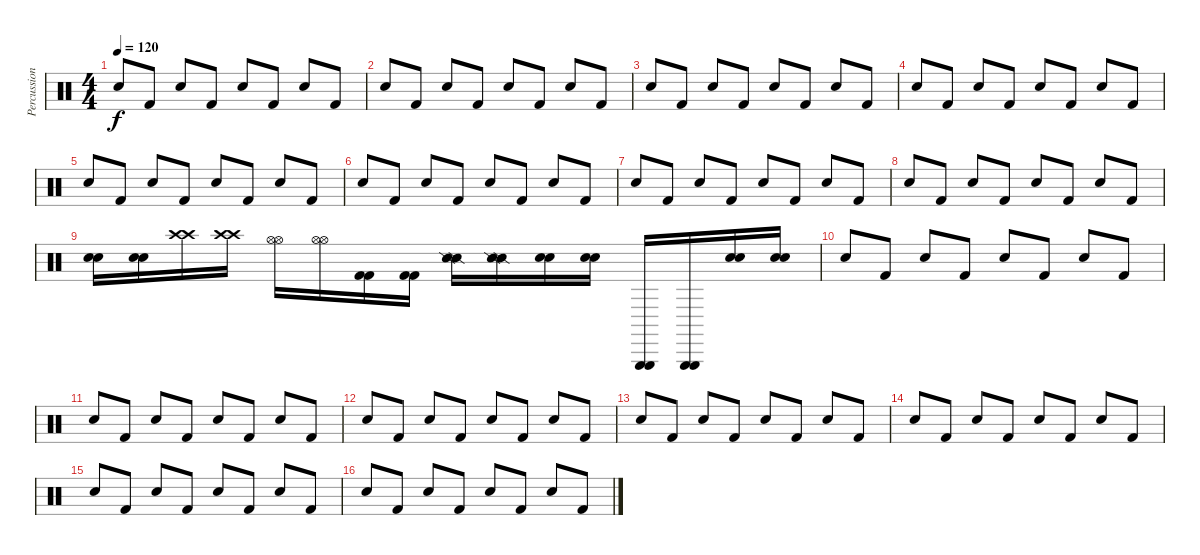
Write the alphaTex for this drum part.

\track ("Percussions" "Percussion") {instrument percussion}
\staff {score}
\articulation defaults
\ts (4 4)
\tempo 120
\clef neutral
\ks c "Electric Snare (hit)".8{dy f} "Kick (hit) 2".8 "Electric Snare (hit)".8 "Kick (hit) 2".8 "Electric Snare (hit)".8 "Kick (hit) 2".8 "Electric Snare (hit)".8 "Kick (hit) 2".8
|
"Electric Snare (hit)".8 "Kick (hit) 2".8 "Electric Snare (hit)".8 "Kick (hit) 2".8 "Electric Snare (hit)".8 "Kick (hit) 2".8 "Electric Snare (hit)".8 "Kick (hit) 2".8 |
"Electric Snare (hit)".8 "Kick (hit) 2".8 "Electric Snare (hit)".8 "Kick (hit) 2".8 "Electric Snare (hit)".8 "Kick (hit) 2".8 "Electric Snare (hit)".8 "Kick (hit) 2".8 |
"Electric Snare (hit)".8 "Kick (hit) 2".8 "Electric Snare (hit)".8 "Kick (hit) 2".8 "Electric Snare (hit)".8 "Kick (hit) 2".8 "Electric Snare (hit)".8 "Kick (hit) 2".8 |
"Electric Snare (hit)".8 "Kick (hit) 2".8 "Electric Snare (hit)".8 "Kick (hit) 2".8 "Electric Snare (hit)".8 "Kick (hit) 2".8 "Electric Snare (hit)".8 "Kick (hit) 2".8 |
"Electric Snare (hit)".8 "Kick (hit) 2".8 "Electric Snare (hit)".8 "Kick (hit) 2".8 "Electric Snare (hit)".8 "Kick (hit) 2".8 "Electric Snare (hit)".8 "Kick (hit) 2".8 |
"Electric Snare (hit)".8 "Kick (hit) 2".8 "Electric Snare (hit)".8 "Kick (hit) 2".8 "Electric Snare (hit)".8 "Kick (hit) 2".8 "Electric Snare (hit)".8 "Kick (hit) 2".8 |
"Electric Snare (hit)".8 "Kick (hit) 2".8 "Electric Snare (hit)".8 "Kick (hit) 2".8 "Electric Snare (hit)".8 "Kick (hit) 2".8 "Electric Snare (hit)".8 "Kick (hit) 2".8 |
("Snare (hit) 2" "Snare (hit) 2").16 ("Snare (hit) 2" "Snare (hit) 2").16 ("Crash high (hit)" "Crash high (hit)").16 ("Crash high (hit)" "Crash high (hit)").16 ("Hi-Hat (open)" "Hi-Hat (open)").16 ("Hi-Hat (open)" "Hi-Hat (open)").16 ("Kick (hit) 2" "Kick (hit) 2").16 ("Kick (hit) 2" "Kick (hit) 2").16 ("Snare (side stick) 2" "Snare (side stick) 2").16 ("Snare (side stick) 2" "Snare (side stick) 2").16 ("Electric Snare (hit)" "Electric Snare (hit)").16 ("Electric Snare (hit)" "Electric Snare (hit)").16 ("Triangle (hit)" "Triangle (hit)").16 ("Triangle (hit)" "Triangle (hit)").16 ("Snare (hit) 2" "Snare (hit) 2").16 ("Snare (hit) 2" "Snare (hit) 2").16 |
"Electric Snare (hit)".8 "Kick (hit) 2".8 "Electric Snare (hit)".8 "Kick (hit) 2".8 "Electric Snare (hit)".8 "Kick (hit) 2".8 "Electric Snare (hit)".8 "Kick (hit) 2".8 |
"Electric Snare (hit)".8 "Kick (hit) 2".8 "Electric Snare (hit)".8 "Kick (hit) 2".8 "Electric Snare (hit)".8 "Kick (hit) 2".8 "Electric Snare (hit)".8 "Kick (hit) 2".8 |
"Electric Snare (hit)".8 "Kick (hit) 2".8 "Electric Snare (hit)".8 "Kick (hit) 2".8 "Electric Snare (hit)".8 "Kick (hit) 2".8 "Electric Snare (hit)".8 "Kick (hit) 2".8 |
"Electric Snare (hit)".8 "Kick (hit) 2".8 "Electric Snare (hit)".8 "Kick (hit) 2".8 "Electric Snare (hit)".8 "Kick (hit) 2".8 "Electric Snare (hit)".8 "Kick (hit) 2".8 |
"Electric Snare (hit)".8 "Kick (hit) 2".8 "Electric Snare (hit)".8 "Kick (hit) 2".8 "Electric Snare (hit)".8 "Kick (hit) 2".8 "Electric Snare (hit)".8 "Kick (hit) 2".8 |
"Electric Snare (hit)".8 "Kick (hit) 2".8 "Electric Snare (hit)".8 "Kick (hit) 2".8 "Electric Snare (hit)".8 "Kick (hit) 2".8 "Electric Snare (hit)".8 "Kick (hit) 2".8 |
"Electric Snare (hit)".8 "Kick (hit) 2".8 "Electric Snare (hit)".8 "Kick (hit) 2".8 "Electric Snare (hit)".8 "Kick (hit) 2".8 "Electric Snare (hit)".8 "Kick (hit) 2".8
